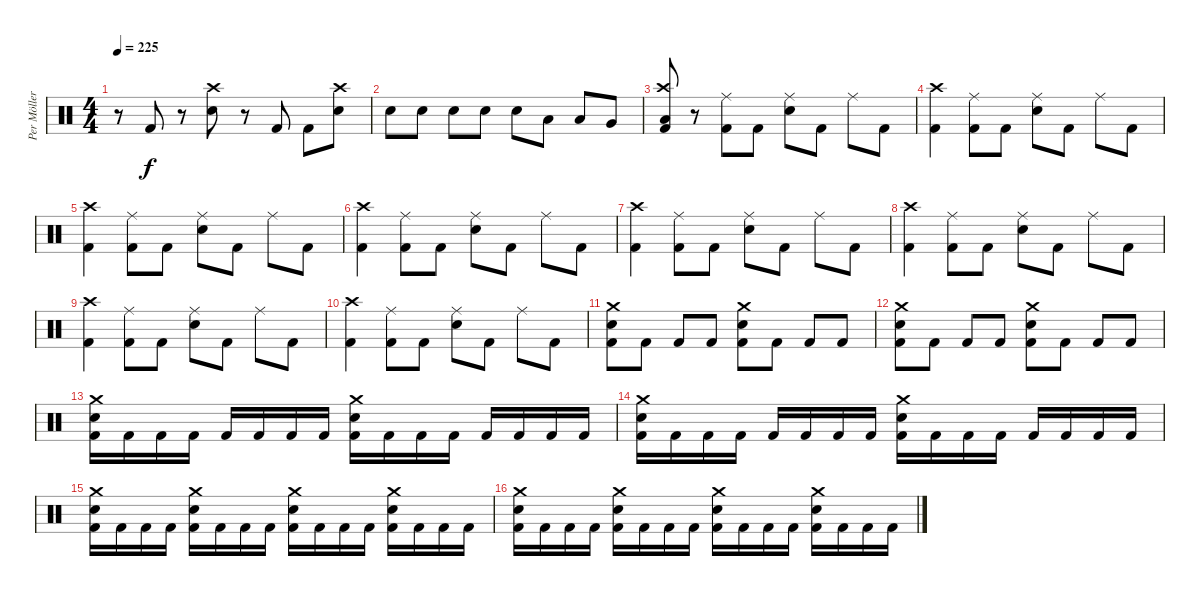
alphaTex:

\track ("Per Möller Jensen" "Per Möller") {instrument percussion}
\staff {score}
\articulation defaults
\ts (4 4)
\tempo 225
\clef neutral
\ks c
r.8{dy f} "Kick (hit) 2".8 r.8 ("Crash high (hit)" "Snare (hit) 2").8 r.8 "Kick (hit) 2".8 "Kick (hit) 2".8 ("Crash high (hit)" "Snare (hit) 2").8 |
"Snare (hit) 2".8 "Snare (hit) 2".8 "Snare (hit) 2".8 "Snare (hit) 2".8 "Snare (hit) 2".8 "Low Tom (hit)".8 "Low Tom (hit)".8 "Very Low Tom (hit)".8 |
("Crash high (hit)" "Low Floor Tom (hit)" "Kick (hit) 2").8 r.8 ("Ride (middle)" "Kick (hit) 2").8 "Kick (hit) 2".8 ("Ride (middle)" "Snare (hit) 2").8 "Kick (hit) 2".8 "Ride (middle)".8 "Kick (hit) 2".8 |
("Crash high (hit)" "Kick (hit) 2").4 ("Ride (middle)" "Kick (hit) 2").8 "Kick (hit) 2".8 ("Ride (middle)" "Snare (hit) 2").8 "Kick (hit) 2".8 "Ride (middle)".8 "Kick (hit) 2".8 |
("Crash high (hit)" "Kick (hit) 2").4 ("Ride (middle)" "Kick (hit) 2").8 "Kick (hit) 2".8 ("Ride (middle)" "Snare (hit) 2").8 "Kick (hit) 2".8 "Ride (middle)".8 "Kick (hit) 2".8 |
("Crash high (hit)" "Kick (hit) 2").4 ("Ride (middle)" "Kick (hit) 2").8 "Kick (hit) 2".8 ("Ride (middle)" "Snare (hit) 2").8 "Kick (hit) 2".8 "Ride (middle)".8 "Kick (hit) 2".8 |
("Crash high (hit)" "Kick (hit) 2").4 ("Ride (middle)" "Kick (hit) 2").8 "Kick (hit) 2".8 ("Ride (middle)" "Snare (hit) 2").8 "Kick (hit) 2".8 "Ride (middle)".8 "Kick (hit) 2".8 |
("Crash high (hit)" "Kick (hit) 2").4 ("Ride (middle)" "Kick (hit) 2").8 "Kick (hit) 2".8 ("Ride (middle)" "Snare (hit) 2").8 "Kick (hit) 2".8 "Ride (middle)".8 "Kick (hit) 2".8 |
("Crash high (hit)" "Kick (hit) 2").4 ("Ride (middle)" "Kick (hit) 2").8 "Kick (hit) 2".8 ("Ride (middle)" "Snare (hit) 2").8 "Kick (hit) 2".8 "Ride (middle)".8 "Kick (hit) 2".8 |
("Crash high (hit)" "Kick (hit) 2").4 ("Ride (middle)" "Kick (hit) 2").8 "Kick (hit) 2".8 ("Ride (middle)" "Snare (hit) 2").8 "Kick (hit) 2".8 "Ride (middle)".8 "Kick (hit) 2".8 |
("Crash medium (hit)" "Snare (hit) 2" "Kick (hit) 2").8 "Kick (hit) 2".8 "Kick (hit) 2".8 "Kick (hit) 2".8 ("Crash medium (hit)" "Snare (hit) 2" "Kick (hit) 2").8 "Kick (hit) 2".8 "Kick (hit) 2".8 "Kick (hit) 2".8 |
("Crash medium (hit)" "Snare (hit) 2" "Kick (hit) 2").8 "Kick (hit) 2".8 "Kick (hit) 2".8 "Kick (hit) 2".8 ("Crash medium (hit)" "Snare (hit) 2" "Kick (hit) 2").8 "Kick (hit) 2".8 "Kick (hit) 2".8 "Kick (hit) 2".8 |
("Crash medium (hit)" "Snare (hit) 2" "Kick (hit) 2").16 "Kick (hit) 2".16 "Kick (hit) 2".16 "Kick (hit) 2".16 "Kick (hit) 2".16 "Kick (hit) 2".16 "Kick (hit) 2".16 "Kick (hit) 2".16 ("Crash medium (hit)" "Snare (hit) 2" "Kick (hit) 2").16 "Kick (hit) 2".16 "Kick (hit) 2".16 "Kick (hit) 2".16 "Kick (hit) 2".16 "Kick (hit) 2".16 "Kick (hit) 2".16 "Kick (hit) 2".16 |
("Crash medium (hit)" "Snare (hit) 2" "Kick (hit) 2").16 "Kick (hit) 2".16 "Kick (hit) 2".16 "Kick (hit) 2".16 "Kick (hit) 2".16 "Kick (hit) 2".16 "Kick (hit) 2".16 "Kick (hit) 2".16 ("Crash medium (hit)" "Snare (hit) 2" "Kick (hit) 2").16 "Kick (hit) 2".16 "Kick (hit) 2".16 "Kick (hit) 2".16 "Kick (hit) 2".16 "Kick (hit) 2".16 "Kick (hit) 2".16 "Kick (hit) 2".16 |
("Crash medium (hit)" "Snare (hit) 2" "Kick (hit) 2").16 "Kick (hit) 2".16 "Kick (hit) 2".16 "Kick (hit) 2".16 ("Crash medium (hit)" "Snare (hit) 2" "Kick (hit) 2").16 "Kick (hit) 2".16 "Kick (hit) 2".16 "Kick (hit) 2".16 ("Crash medium (hit)" "Snare (hit) 2" "Kick (hit) 2").16 "Kick (hit) 2".16 "Kick (hit) 2".16 "Kick (hit) 2".16 ("Crash medium (hit)" "Snare (hit) 2" "Kick (hit) 2").16 "Kick (hit) 2".16 "Kick (hit) 2".16 "Kick (hit) 2".16 |
("Crash medium (hit)" "Snare (hit) 2" "Kick (hit) 2").16 "Kick (hit) 2".16 "Kick (hit) 2".16 "Kick (hit) 2".16 ("Crash medium (hit)" "Snare (hit) 2" "Kick (hit) 2").16 "Kick (hit) 2".16 "Kick (hit) 2".16 "Kick (hit) 2".16 ("Crash medium (hit)" "Snare (hit) 2" "Kick (hit) 2").16 "Kick (hit) 2".16 "Kick (hit) 2".16 "Kick (hit) 2".16 ("Crash medium (hit)" "Snare (hit) 2" "Kick (hit) 2").16 "Kick (hit) 2".16 "Kick (hit) 2".16 "Kick (hit) 2".16
